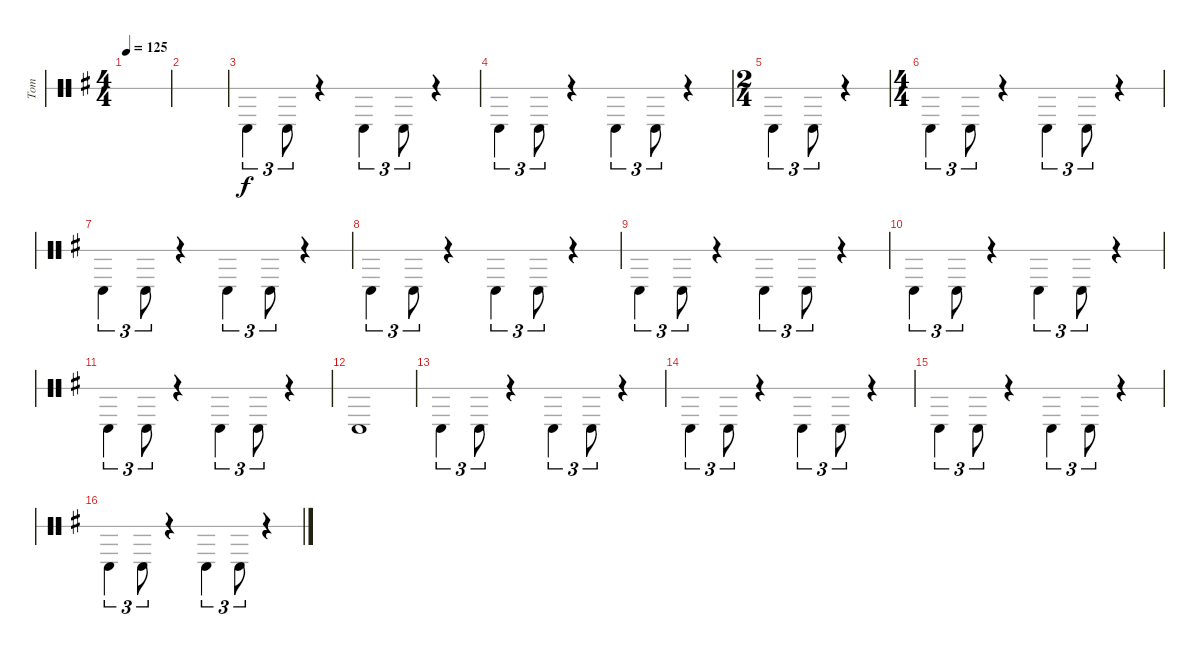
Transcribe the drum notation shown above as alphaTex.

\defaultSystemsLayout 4
\bracketExtendMode groupsimilarinstruments
\otherSystemsTrackNameOrientation horizontal
\track ("Melodic Tom" "Tom") {instrument percussion}
\staff {score 1}
\articulation defaults
\ts (4 4)
\tempo 125
\clef neutral
\scale
0.333333
\ks g
|
\scale
0.333333 |
\scale
0.262911 "Timbale high (hit)"{acc forcenatural}.4{tu (3 2) beam Down} "Timbale high (hit)"{acc forcenatural}.8{tu (3 2) beam Down} r.4{beam Down} "Timbale high (hit)"{acc forcenatural}.4{tu (3 2) beam Down} "Timbale high (hit)"{acc forcenatural}.8{tu (3 2) beam Down} r.4{beam Down} |
\scale
0.262911 "Timbale high (hit)"{acc forcenatural}.4{tu (3 2) beam Down} "Timbale high (hit)"{acc forcenatural}.8{tu (3 2) beam Down} r.4{beam Down} "Timbale high (hit)"{acc forcenatural}.4{tu (3 2) beam Down} "Timbale high (hit)"{acc forcenatural}.8{tu (3 2) beam Down} r.4{beam Down} |
\ts (2 4)
\scale
0.474178 "Timbale high (hit)"{acc forcenatural}.4{tu (3 2) beam Down} "Timbale high (hit)"{acc forcenatural}.8{tu (3 2) beam Down} r.4{beam Down} |
\ts (4 4)
\scale
0.474178 "Timbale high (hit)"{acc forcenatural}.4{tu (3 2) beam Down} "Timbale high (hit)"{acc forcenatural}.8{tu (3 2) beam Down} r.4{beam Down} "Timbale high (hit)"{acc forcenatural}.4{tu (3 2) beam Down} "Timbale high (hit)"{acc forcenatural}.8{tu (3 2) beam Down} r.4{beam Down} |
\scale
0.262911 "Timbale high (hit)"{acc forcenatural}.4{tu (3 2) beam Down} "Timbale high (hit)"{acc forcenatural}.8{tu (3 2) beam Down} r.4{beam Down} "Timbale high (hit)"{acc forcenatural}.4{tu (3 2) beam Down} "Timbale high (hit)"{acc forcenatural}.8{tu (3 2) beam Down} r.4{beam Down} |
\scale
0.262911 "Timbale high (hit)"{acc forcenatural}.4{tu (3 2) beam Down} "Timbale high (hit)"{acc forcenatural}.8{tu (3 2) beam Down} r.4{beam Down} "Timbale high (hit)"{acc forcenatural}.4{tu (3 2) beam Down} "Timbale high (hit)"{acc forcenatural}.8{tu (3 2) beam Down} r.4{beam Down} |
\scale
0.333333 "Timbale high (hit)"{acc forcenatural}.4{tu (3 2) beam Down} "Timbale high (hit)"{acc forcenatural}.8{tu (3 2) beam Down} r.4{beam Down} "Timbale high (hit)"{acc forcenatural}.4{tu (3 2) beam Down} "Timbale high (hit)"{acc forcenatural}.8{tu (3 2) beam Down} r.4{beam Down} |
\scale
0.333333 "Timbale high (hit)"{acc forcenatural}.4{tu (3 2) beam Down} "Timbale high (hit)"{acc forcenatural}.8{tu (3 2) beam Down} r.4{beam Down} "Timbale high (hit)"{acc forcenatural}.4{tu (3 2) beam Down} "Timbale high (hit)"{acc forcenatural}.8{tu (3 2) beam Down} r.4{beam Down} |
\scale
0.333333 "Timbale high (hit)"{acc forcenatural}.4{tu (3 2) beam Down} "Timbale high (hit)"{acc forcenatural}.8{tu (3 2) beam Down} r.4{beam Down} "Timbale high (hit)"{acc forcenatural}.4{tu (3 2) beam Down} "Timbale high (hit)"{acc forcenatural}.8{tu (3 2) beam Down} r.4{beam Down} |
\scale
0.333333 "Timbale high (hit)"{acc forcenatural}.1{beam Down} |
\scale
0.333333 "Timbale high (hit)"{acc forcenatural}.4{tu (3 2) beam Down} "Timbale high (hit)"{acc forcenatural}.8{tu (3 2) beam Down} r.4{beam Down} "Timbale high (hit)"{acc forcenatural}.4{tu (3 2) beam Down} "Timbale high (hit)"{acc forcenatural}.8{tu (3 2) beam Down} r.4{beam Down} |
\scale
0.333333 "Timbale high (hit)"{acc forcenatural}.4{tu (3 2) beam Down} "Timbale high (hit)"{acc forcenatural}.8{tu (3 2) beam Down} r.4{beam Down} "Timbale high (hit)"{acc forcenatural}.4{tu (3 2) beam Down} "Timbale high (hit)"{acc forcenatural}.8{tu (3 2) beam Down} r.4{beam Down} |
\scale
0.333333 "Timbale high (hit)"{acc forcenatural}.4{tu (3 2) beam Down} "Timbale high (hit)"{acc forcenatural}.8{tu (3 2) beam Down} r.4{beam Down} "Timbale high (hit)"{acc forcenatural}.4{tu (3 2) beam Down} "Timbale high (hit)"{acc forcenatural}.8{tu (3 2) beam Down} r.4{beam Down} |
\scale
0.333333 "Timbale high (hit)"{acc forcenatural}.4{tu (3 2) beam Down} "Timbale high (hit)"{acc forcenatural}.8{tu (3 2) beam Down} r.4{beam Down} "Timbale high (hit)"{acc forcenatural}.4{tu (3 2) beam Down} "Timbale high (hit)"{acc forcenatural}.8{tu (3 2) beam Down} r.4{beam Down}
